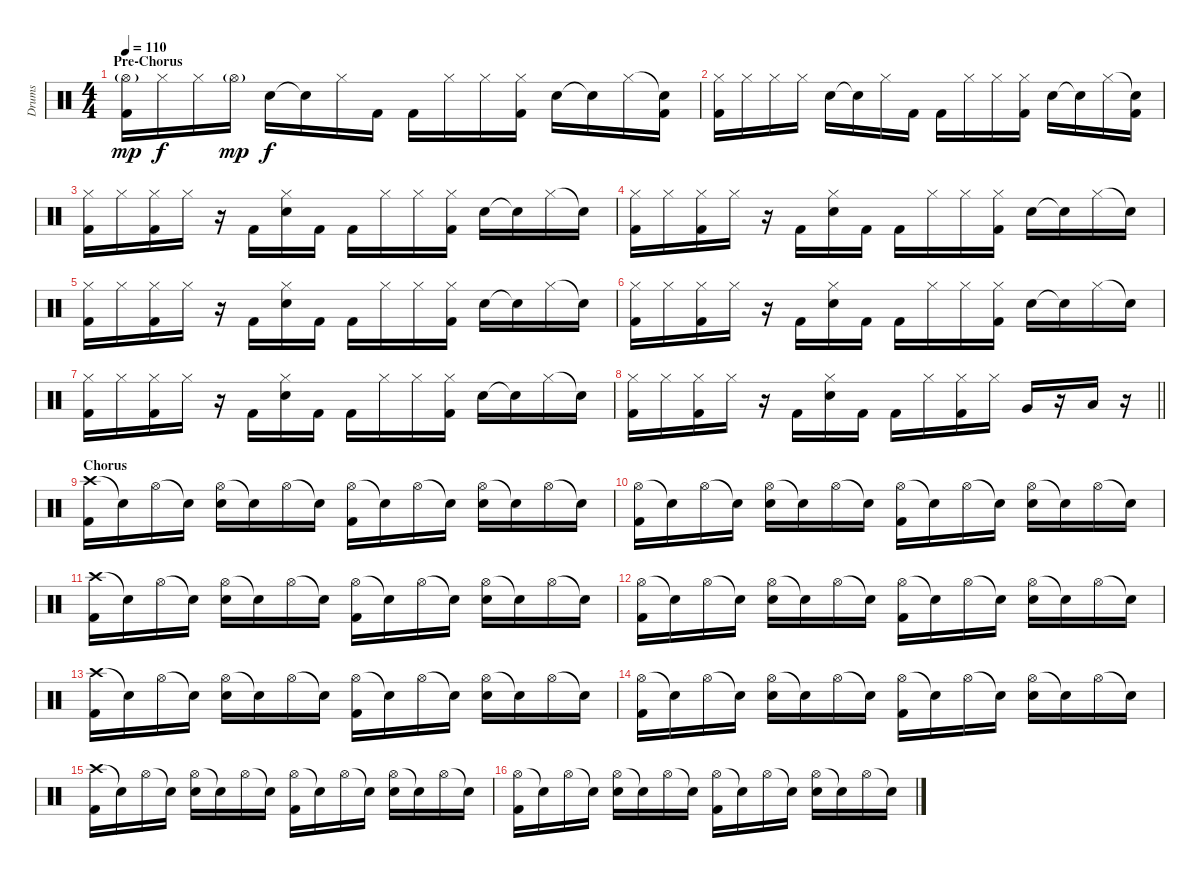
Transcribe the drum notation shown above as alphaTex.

\track ("Drums" "Drums") {instrument percussion}
\staff {score}
\articulation defaults
\ts (4 4)
\section ("" "Pre-Chorus")
\tempo 110
\clef neutral
\ks c
("Hi-Hat (open)"{g} "Kick (hit) 2").16{dy mp} "Hi-Hat (closed)".16{dy f} "Hi-Hat (closed)".16 "Hi-Hat (open)"{g}.16{dy mp} "Electric Snare (hit)".16{dy f} "Snare (hit)"{t}.16 "Hi-Hat (closed)".16 "Kick (hit) 2".16 "Kick (hit) 2".16 "Hi-Hat (closed)".16 "Hi-Hat (closed)".16 ("Hi-Hat (closed)" "Kick (hit) 2").16 "Electric Snare (hit)".16 "Snare (hit)"{t}.16 "Hi-Hat (closed)".16 ("Snare (hit)"{t} "Kick (hit) 2").16 |
("Hi-Hat (closed)" "Kick (hit) 2").16 "Hi-Hat (closed)".16 "Hi-Hat (closed)".16 "Hi-Hat (closed)".16 "Electric Snare (hit)".16 "Snare (hit)"{t}.16 "Hi-Hat (closed)".16 "Kick (hit) 2".16 "Kick (hit) 2".16 "Hi-Hat (closed)".16 "Hi-Hat (closed)".16 ("Hi-Hat (closed)" "Kick (hit) 2").16 "Electric Snare (hit)".16 "Snare (hit)"{t}.16 "Hi-Hat (closed)".16 ("Snare (hit)"{t} "Kick (hit) 2").16 |
("Hi-Hat (closed)" "Kick (hit) 2").16 "Hi-Hat (closed)".16 ("Hi-Hat (closed)" "Kick (hit) 2").16 "Hi-Hat (closed)".16 r.16 "Kick (hit) 2".16 ("Hi-Hat (closed)" "Electric Snare (hit)").16 "Kick (hit) 2".16 "Kick (hit) 2".16 "Hi-Hat (closed)".16 "Hi-Hat (closed)".16 ("Hi-Hat (closed)" "Kick (hit) 2").16 "Electric Snare (hit)".16 "Snare (hit)"{t}.16 "Hi-Hat (closed)".16 "Snare (hit)"{t}.16 |
("Hi-Hat (closed)" "Kick (hit) 2").16 "Hi-Hat (closed)".16 ("Hi-Hat (closed)" "Kick (hit) 2").16 "Hi-Hat (closed)".16 r.16 "Kick (hit) 2".16 ("Hi-Hat (closed)" "Electric Snare (hit)").16 "Kick (hit) 2".16 "Kick (hit) 2".16 "Hi-Hat (closed)".16 "Hi-Hat (closed)".16 ("Hi-Hat (closed)" "Kick (hit) 2").16 "Electric Snare (hit)".16 "Snare (hit)"{t}.16 "Hi-Hat (closed)".16 "Snare (hit)"{t}.16 |
("Hi-Hat (closed)" "Kick (hit) 2").16 "Hi-Hat (closed)".16 ("Hi-Hat (closed)" "Kick (hit) 2").16 "Hi-Hat (closed)".16 r.16 "Kick (hit) 2".16 ("Hi-Hat (closed)" "Electric Snare (hit)").16 "Kick (hit) 2".16 "Kick (hit) 2".16 "Hi-Hat (closed)".16 "Hi-Hat (closed)".16 ("Hi-Hat (closed)" "Kick (hit) 2").16 "Electric Snare (hit)".16 "Snare (hit)"{t}.16 "Hi-Hat (closed)".16 "Snare (hit)"{t}.16 |
("Hi-Hat (closed)" "Kick (hit) 2").16 "Hi-Hat (closed)".16 ("Hi-Hat (closed)" "Kick (hit) 2").16 "Hi-Hat (closed)".16 r.16 "Kick (hit) 2".16 ("Hi-Hat (closed)" "Electric Snare (hit)").16 "Kick (hit) 2".16 "Kick (hit) 2".16 "Hi-Hat (closed)".16 "Hi-Hat (closed)".16 ("Hi-Hat (closed)" "Kick (hit) 2").16 "Electric Snare (hit)".16 "Snare (hit)"{t}.16 "Hi-Hat (closed)".16 "Snare (hit)"{t}.16 |
("Hi-Hat (closed)" "Kick (hit) 2").16 "Hi-Hat (closed)".16 ("Hi-Hat (closed)" "Kick (hit) 2").16 "Hi-Hat (closed)".16 r.16 "Kick (hit) 2".16 ("Hi-Hat (closed)" "Electric Snare (hit)").16 "Kick (hit) 2".16 "Kick (hit) 2".16 "Hi-Hat (closed)".16 "Hi-Hat (closed)".16 ("Hi-Hat (closed)" "Kick (hit) 2").16 "Electric Snare (hit)".16 "Snare (hit)"{t}.16 "Hi-Hat (closed)".16 "Snare (hit)"{t}.16 |
\barLineRight lightlight
("Hi-Hat (closed)" "Kick (hit) 2").16 "Hi-Hat (closed)".16 ("Hi-Hat (closed)" "Kick (hit) 2").16 "Hi-Hat (closed)".16 r.16 "Kick (hit) 2".16 ("Hi-Hat (closed)" "Electric Snare (hit)").16 "Kick (hit) 2".16 "Kick (hit) 2".16 "Hi-Hat (closed)".16 ("Hi-Hat (closed)" "Kick (hit) 2").16 "Hi-Hat (closed)".16 "Very Low Tom (hit)".16 r.16 "Low Floor Tom (hit)".16 r.16 |
\section ("" "Chorus")
("Crash high (hit)" "Kick (hit) 2").16 "Snare (hit)"{t}.16 "Hi-Hat (open)".16 "Snare (hit)"{t}.16 ("Hi-Hat (open)" "Electric Snare (hit)").16 "Snare (hit)"{t}.16 "Hi-Hat (open)".16 "Snare (hit)"{t}.16 ("Hi-Hat (open)" "Kick (hit) 2").16 "Snare (hit)"{t}.16 "Hi-Hat (open)".16 "Snare (hit)"{t}.16 ("Hi-Hat (open)" "Electric Snare (hit)").16 "Snare (hit)"{t}.16 "Hi-Hat (open)".16 "Snare (hit)"{t}.16 |
("Hi-Hat (open)" "Kick (hit) 2").16 "Snare (hit)"{t}.16 "Hi-Hat (open)".16 "Snare (hit)"{t}.16 ("Hi-Hat (open)" "Electric Snare (hit)").16 "Snare (hit)"{t}.16 "Hi-Hat (open)".16 "Snare (hit)"{t}.16 ("Hi-Hat (open)" "Kick (hit) 2").16 "Snare (hit)"{t}.16 "Hi-Hat (open)".16 "Snare (hit)"{t}.16 ("Hi-Hat (open)" "Electric Snare (hit)").16 "Snare (hit)"{t}.16 "Hi-Hat (open)".16 "Snare (hit)"{t}.16 |
("Crash high (hit)" "Kick (hit) 2").16 "Snare (hit)"{t}.16 "Hi-Hat (open)".16 "Snare (hit)"{t}.16 ("Hi-Hat (open)" "Electric Snare (hit)").16 "Snare (hit)"{t}.16 "Hi-Hat (open)".16 "Snare (hit)"{t}.16 ("Hi-Hat (open)" "Kick (hit) 2").16 "Snare (hit)"{t}.16 "Hi-Hat (open)".16 "Snare (hit)"{t}.16 ("Hi-Hat (open)" "Electric Snare (hit)").16 "Snare (hit)"{t}.16 "Hi-Hat (open)".16 "Snare (hit)"{t}.16 |
("Hi-Hat (open)" "Kick (hit) 2").16 "Snare (hit)"{t}.16 "Hi-Hat (open)".16 "Snare (hit)"{t}.16 ("Hi-Hat (open)" "Electric Snare (hit)").16 "Snare (hit)"{t}.16 "Hi-Hat (open)".16 "Snare (hit)"{t}.16 ("Hi-Hat (open)" "Kick (hit) 2").16 "Snare (hit)"{t}.16 "Hi-Hat (open)".16 "Snare (hit)"{t}.16 ("Hi-Hat (open)" "Electric Snare (hit)").16 "Snare (hit)"{t}.16 "Hi-Hat (open)".16 "Snare (hit)"{t}.16 |
("Crash high (hit)" "Kick (hit) 2").16 "Snare (hit)"{t}.16 "Hi-Hat (open)".16 "Snare (hit)"{t}.16 ("Hi-Hat (open)" "Electric Snare (hit)").16 "Snare (hit)"{t}.16 "Hi-Hat (open)".16 "Snare (hit)"{t}.16 ("Hi-Hat (open)" "Kick (hit) 2").16 "Snare (hit)"{t}.16 "Hi-Hat (open)".16 "Snare (hit)"{t}.16 ("Hi-Hat (open)" "Electric Snare (hit)").16 "Snare (hit)"{t}.16 "Hi-Hat (open)".16 "Snare (hit)"{t}.16 |
("Hi-Hat (open)" "Kick (hit) 2").16 "Snare (hit)"{t}.16 "Hi-Hat (open)".16 "Snare (hit)"{t}.16 ("Hi-Hat (open)" "Electric Snare (hit)").16 "Snare (hit)"{t}.16 "Hi-Hat (open)".16 "Snare (hit)"{t}.16 ("Hi-Hat (open)" "Kick (hit) 2").16 "Snare (hit)"{t}.16 "Hi-Hat (open)".16 "Snare (hit)"{t}.16 ("Hi-Hat (open)" "Electric Snare (hit)").16 "Snare (hit)"{t}.16 "Hi-Hat (open)".16 "Snare (hit)"{t}.16 |
("Crash high (hit)" "Kick (hit) 2").16 "Snare (hit)"{t}.16 "Hi-Hat (open)".16 "Snare (hit)"{t}.16 ("Hi-Hat (open)" "Electric Snare (hit)").16 "Snare (hit)"{t}.16 "Hi-Hat (open)".16 "Snare (hit)"{t}.16 ("Hi-Hat (open)" "Kick (hit) 2").16 "Snare (hit)"{t}.16 "Hi-Hat (open)".16 "Snare (hit)"{t}.16 ("Hi-Hat (open)" "Electric Snare (hit)").16 "Snare (hit)"{t}.16 "Hi-Hat (open)".16 "Snare (hit)"{t}.16 |
("Hi-Hat (open)" "Kick (hit) 2").16 "Snare (hit)"{t}.16 "Hi-Hat (open)".16 "Snare (hit)"{t}.16 ("Hi-Hat (open)" "Electric Snare (hit)").16 "Snare (hit)"{t}.16 "Hi-Hat (open)".16 "Snare (hit)"{t}.16 ("Hi-Hat (open)" "Kick (hit) 2").16 "Snare (hit)"{t}.16 "Hi-Hat (open)".16 "Snare (hit)"{t}.16 ("Hi-Hat (open)" "Electric Snare (hit)").16 "Snare (hit)"{t}.16 "Hi-Hat (open)".16 "Snare (hit)"{t}.16
